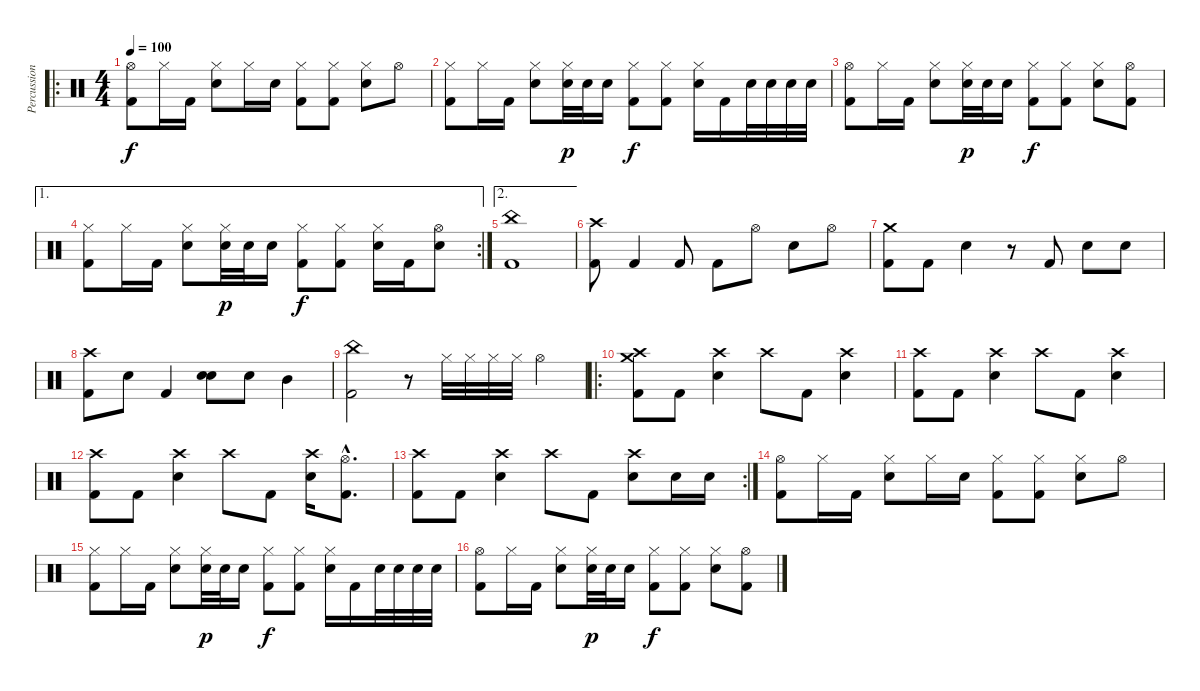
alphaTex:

\track ("Percussions" "Percussion") {instrument percussion}
\staff {score}
\articulation defaults
\ro
\ts (4 4)
\tempo 100
\clef neutral
\ks c
("Hi-Hat (open)" "Kick (hit) 2").8{dy f volume 13} "Hi-Hat (closed)".16 "Kick (hit) 2".16 ("Hi-Hat (closed)" "Snare (hit) 2").8 "Hi-Hat (closed)".16 "Snare (hit) 2".16 ("Hi-Hat (closed)" "Kick (hit) 2").8 ("Hi-Hat (closed)" "Kick (hit) 2").8 ("Hi-Hat (closed)" "Snare (hit) 2").8 "Hi-Hat (open)".8 |
("Hi-Hat (closed)" "Kick (hit) 2").8 "Hi-Hat (closed)".16 "Kick (hit) 2".16 ("Hi-Hat (closed)" "Snare (hit) 2").8 ("Hi-Hat (closed)" "Snare (hit) 2").32{dy p} "Snare (hit) 2".32 "Snare (hit) 2".16 ("Hi-Hat (closed)" "Kick (hit) 2").8{dy f} ("Hi-Hat (closed)" "Kick (hit) 2").8 ("Hi-Hat (closed)" "Snare (hit) 2").16 "Kick (hit) 2".16 "Snare (hit) 2".32 "Snare (hit) 2".32 "Snare (hit) 2".32 "Snare (hit) 2".32 |
("Hi-Hat (open)" "Kick (hit) 2").8 "Hi-Hat (closed)".16 "Kick (hit) 2".16 ("Hi-Hat (closed)" "Snare (hit) 2").8 ("Hi-Hat (closed)" "Snare (hit) 2").32{dy p} "Snare (hit) 2".32 "Snare (hit) 2".16 ("Hi-Hat (closed)" "Kick (hit) 2").8{dy f} ("Hi-Hat (closed)" "Kick (hit) 2").8 ("Hi-Hat (closed)" "Snare (hit) 2").8 ("Hi-Hat (open)" "Kick (hit) 2").8 |
\ae 1
\rc 2
("Hi-Hat (closed)" "Kick (hit) 2").8 "Hi-Hat (closed)".16 "Kick (hit) 2".16 ("Hi-Hat (closed)" "Snare (hit) 2").8 ("Hi-Hat (closed)" "Snare (hit) 2").32{dy p} "Snare (hit) 2".32 "Snare (hit) 2".16 ("Hi-Hat (closed)" "Kick (hit) 2").8{dy f} ("Hi-Hat (closed)" "Kick (hit) 2").8 ("Hi-Hat (closed)" "Snare (hit) 2").16 "Kick (hit) 2".16 ("Hi-Hat (open)" "Snare (hit) 2").8 |
\ae 2
("China (hit)" "Kick (hit) 2").1 |
("Crash high (hit)" "Kick (hit) 2").8 "Kick (hit) 2".4 "Kick (hit) 2".8 "Kick (hit) 2".8 "Hi-Hat (open)".8 "Snare (hit) 2".8 "Hi-Hat (open)".8 |
("Crash medium (hit)" "Kick (hit) 2").8 "Kick (hit) 2".8 "Snare (hit) 2".4 r.8 "Kick (hit) 2".8 "Snare (hit) 2".8 "Snare (hit) 2".8 |
("Crash high (hit)" "Kick (hit) 2").8 "Snare (hit) 2".8 "Kick (hit) 2".4 ("Snare (hit) 2" "Snare (hit) 2").8{bd 120} "Snare (hit) 2".8 "Mid Tom (hit)".4 |
("China (hit)" "Kick (hit) 2").2 r.8 "Hi-Hat (closed)".32 "Hi-Hat (closed)".32 "Hi-Hat (closed)".32 "Hi-Hat (closed)".32 "Hi-Hat (open)".4 |
\ro
("Crash high (hit)" "Crash medium (hit)" "Kick (hit) 2").8 "Kick (hit) 2".8 ("Crash high (hit)" "Snare (hit) 2").4 "Crash high (hit)".8 "Kick (hit) 2".8 ("Crash high (hit)" "Snare (hit) 2").4 |
("Crash high (hit)" "Kick (hit) 2").8 "Kick (hit) 2".8 ("Crash high (hit)" "Snare (hit) 2").4 "Crash high (hit)".8 "Kick (hit) 2".8 ("Crash high (hit)" "Snare (hit) 2").4 |
("Crash high (hit)" "Kick (hit) 2").8 "Kick (hit) 2".8 ("Crash high (hit)" "Snare (hit) 2").4 "Crash high (hit)".8 "Kick (hit) 2".8 ("Crash high (hit)" "Snare (hit) 2").16 ("Hi-Hat (open)"{hac} "Kick (hit) 2"{hac}).8{d} |
\rc 2
("Crash high (hit)" "Kick (hit) 2").8 "Kick (hit) 2".8 ("Crash high (hit)" "Snare (hit) 2").4 "Crash high (hit)".8 "Kick (hit) 2".8 ("Crash high (hit)" "Snare (hit) 2").8 "Snare (hit) 2".16 "Snare (hit) 2".16 |
("Hi-Hat (open)" "Kick (hit) 2").8{volume 13} "Hi-Hat (closed)".16 "Kick (hit) 2".16 ("Hi-Hat (closed)" "Snare (hit) 2").8 "Hi-Hat (closed)".16 "Snare (hit) 2".16 ("Hi-Hat (closed)" "Kick (hit) 2").8 ("Hi-Hat (closed)" "Kick (hit) 2").8 ("Hi-Hat (closed)" "Snare (hit) 2").8 "Hi-Hat (open)".8 |
("Hi-Hat (closed)" "Kick (hit) 2").8 "Hi-Hat (closed)".16 "Kick (hit) 2".16 ("Hi-Hat (closed)" "Snare (hit) 2").8 ("Hi-Hat (closed)" "Snare (hit) 2").32{dy p} "Snare (hit) 2".32 "Snare (hit) 2".16 ("Hi-Hat (closed)" "Kick (hit) 2").8{dy f} ("Hi-Hat (closed)" "Kick (hit) 2").8 ("Hi-Hat (closed)" "Snare (hit) 2").16 "Kick (hit) 2".16 "Snare (hit) 2".32 "Snare (hit) 2".32 "Snare (hit) 2".32 "Snare (hit) 2".32 |
("Hi-Hat (open)" "Kick (hit) 2").8 "Hi-Hat (closed)".16 "Kick (hit) 2".16 ("Hi-Hat (closed)" "Snare (hit) 2").8 ("Hi-Hat (closed)" "Snare (hit) 2").32{dy p} "Snare (hit) 2".32 "Snare (hit) 2".16 ("Hi-Hat (closed)" "Kick (hit) 2").8{dy f} ("Hi-Hat (closed)" "Kick (hit) 2").8 ("Hi-Hat (closed)" "Snare (hit) 2").8 ("Hi-Hat (open)" "Kick (hit) 2").8
